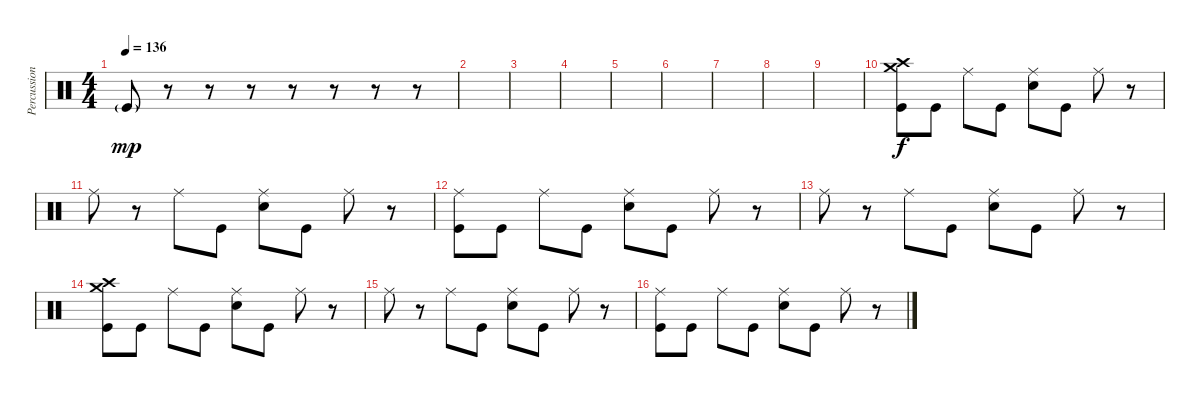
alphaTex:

\track ("Percussion" "Percussion") {instrument percussion}
\staff {score}
\articulation defaults
\ts (4 4)
\tempo 136
\clef neutral
\ks c "Kick (hit)"{g}.8{dy mp}
r.8 r.8 r.8 r.8 r.8 r.8 r.8 |
|
|
|
|
|
|
|
|
("Crash high (hit)" "Crash medium (hit)" "Kick (hit)").8{dy f} "Kick (hit)".8 "Ride (middle)".8 "Kick (hit)".8 ("Ride (middle)" "Electric Snare (hit)").8 "Kick (hit)".8 "Ride (middle)".8 r.8 |
"Ride (middle)".8 r.8 "Ride (middle)".8 "Kick (hit)".8 ("Ride (middle)" "Electric Snare (hit)").8 "Kick (hit)".8 "Ride (middle)".8 r.8 |
("Ride (middle)" "Kick (hit)").8 "Kick (hit)".8 "Ride (middle)".8 "Kick (hit)".8 ("Ride (middle)" "Electric Snare (hit)").8 "Kick (hit)".8 "Ride (middle)".8 r.8 |
"Ride (middle)".8 r.8 "Ride (middle)".8 "Kick (hit)".8 ("Ride (middle)" "Electric Snare (hit)").8 "Kick (hit)".8 "Ride (middle)".8 r.8 |
("Crash high (hit)" "Crash medium (hit)" "Kick (hit)").8 "Kick (hit)".8 "Ride (middle)".8 "Kick (hit)".8 ("Ride (middle)" "Electric Snare (hit)").8 "Kick (hit)".8 "Ride (middle)".8 r.8 |
"Ride (middle)".8 r.8 "Ride (middle)".8 "Kick (hit)".8 ("Ride (middle)" "Electric Snare (hit)").8 "Kick (hit)".8 "Ride (middle)".8 r.8 |
("Ride (middle)" "Kick (hit)").8 "Kick (hit)".8 "Ride (middle)".8 "Kick (hit)".8 ("Ride (middle)" "Electric Snare (hit)").8 "Kick (hit)".8 "Ride (middle)".8 r.8
